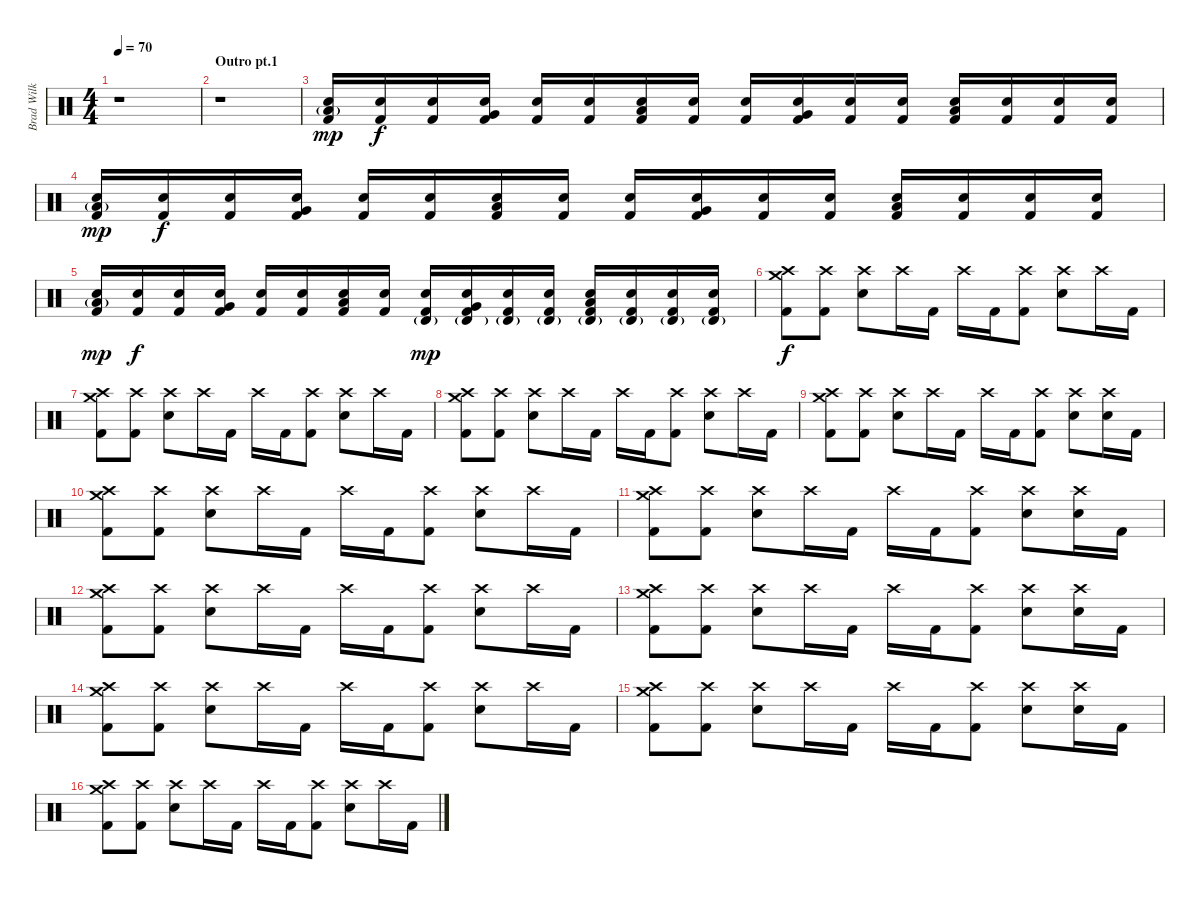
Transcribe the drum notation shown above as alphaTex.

\track ("Brad Wilk (percussion)" "Brad Wilk ") {instrument percussion}
\staff {score}
\articulation defaults
\ts (4 4)
\tempo 70
\clef neutral
\ks c
r.1{dy mp} |
\section ("" "Outro pt.1")
r.1{volume 5} |
("Low Tom (hit)"{g} "Snare (hit) 2" "Kick (hit) 2").16{volume 13} ("Snare (hit) 2" "Kick (hit) 2").16{dy f} ("Snare (hit) 2" "Kick (hit) 2").16 ("Very Low Tom (hit)" "Snare (hit) 2" "Kick (hit) 2").16 ("Snare (hit) 2" "Kick (hit) 2").16 ("Snare (hit) 2" "Kick (hit) 2").16 ("Low Tom (hit)" "Snare (hit) 2" "Kick (hit) 2").16 ("Snare (hit) 2" "Kick (hit) 2").16 ("Snare (hit) 2" "Kick (hit) 2").16 ("Very Low Tom (hit)" "Snare (hit) 2" "Kick (hit) 2").16 ("Snare (hit) 2" "Kick (hit) 2").16 ("Snare (hit) 2" "Kick (hit) 2").16 ("Low Tom (hit)" "Snare (hit) 2" "Kick (hit) 2").16 ("Snare (hit) 2" "Kick (hit) 2").16 ("Snare (hit) 2" "Kick (hit) 2").16 ("Snare (hit) 2" "Kick (hit) 2").16 |
("Low Tom (hit)"{g} "Snare (hit) 2" "Kick (hit) 2").16{dy mp} ("Snare (hit) 2" "Kick (hit) 2").16{dy f} ("Snare (hit) 2" "Kick (hit) 2").16 ("Very Low Tom (hit)" "Snare (hit) 2" "Kick (hit) 2").16 ("Snare (hit) 2" "Kick (hit) 2").16 ("Snare (hit) 2" "Kick (hit) 2").16 ("Low Tom (hit)" "Snare (hit) 2" "Kick (hit) 2").16 ("Snare (hit) 2" "Kick (hit) 2").16 ("Snare (hit) 2" "Kick (hit) 2").16 ("Very Low Tom (hit)" "Snare (hit) 2" "Kick (hit) 2").16 ("Snare (hit) 2" "Kick (hit) 2").16 ("Snare (hit) 2" "Kick (hit) 2").16 ("Low Tom (hit)" "Snare (hit) 2" "Kick (hit) 2").16 ("Snare (hit) 2" "Kick (hit) 2").16 ("Snare (hit) 2" "Kick (hit) 2").16 ("Snare (hit) 2" "Kick (hit) 2").16 |
("Low Tom (hit)"{g} "Snare (hit) 2" "Kick (hit) 2").16{dy mp} ("Snare (hit) 2" "Kick (hit) 2").16{dy f} ("Snare (hit) 2" "Kick (hit) 2").16 ("Very Low Tom (hit)" "Snare (hit) 2" "Kick (hit) 2").16 ("Snare (hit) 2" "Kick (hit) 2").16 ("Snare (hit) 2" "Kick (hit) 2").16 ("Low Tom (hit)" "Snare (hit) 2" "Kick (hit) 2").16 ("Snare (hit) 2" "Kick (hit) 2").16 ("Timbale high (hit)"{g} "Snare (hit) 2" "Kick (hit) 2").16{dy mp} ("Timbale high (hit)"{g} "Very Low Tom (hit)" "Snare (hit) 2" "Kick (hit) 2").16 ("Timbale high (hit)"{g} "Snare (hit) 2" "Kick (hit) 2").16 ("Timbale high (hit)"{g} "Snare (hit) 2" "Kick (hit) 2").16 ("Timbale high (hit)"{g} "Low Tom (hit)" "Snare (hit) 2" "Kick (hit) 2").16 ("Timbale high (hit)"{g} "Snare (hit) 2" "Kick (hit) 2").16 ("Timbale high (hit)"{g} "Snare (hit) 2" "Kick (hit) 2").16 ("Timbale high (hit)"{g} "Snare (hit) 2" "Kick (hit) 2").16 |
("Crash high (hit)" "Crash medium (hit)" "Kick (hit) 2").8{dy f volume 13} ("Crash high (hit)" "Kick (hit) 2").8 ("Crash high (hit)" "Electric Snare (hit)").8 "Crash high (hit)".16 "Kick (hit) 2".16 "Crash high (hit)".16 "Kick (hit) 2".16 ("Crash high (hit)" "Kick (hit) 2").8 ("Crash high (hit)" "Electric Snare (hit)").8 "Crash high (hit)".16 "Kick (hit) 2".16 |
("Crash high (hit)" "Crash medium (hit)" "Kick (hit) 2").8 ("Crash high (hit)" "Kick (hit) 2").8 ("Crash high (hit)" "Electric Snare (hit)").8 "Crash high (hit)".16 "Kick (hit) 2".16 "Crash high (hit)".16 "Kick (hit) 2".16 ("Crash high (hit)" "Kick (hit) 2").8 ("Crash high (hit)" "Electric Snare (hit)").8 "Crash high (hit)".16 "Kick (hit) 2".16 |
("Crash high (hit)" "Crash medium (hit)" "Kick (hit) 2").8 ("Crash high (hit)" "Kick (hit) 2").8 ("Crash high (hit)" "Electric Snare (hit)").8 "Crash high (hit)".16 "Kick (hit) 2".16 "Crash high (hit)".16 "Kick (hit) 2".16 ("Crash high (hit)" "Kick (hit) 2").8 ("Crash high (hit)" "Electric Snare (hit)").8 "Crash high (hit)".16 "Kick (hit) 2".16 |
("Crash high (hit)" "Crash medium (hit)" "Kick (hit) 2").8 ("Crash high (hit)" "Kick (hit) 2").8 ("Crash high (hit)" "Electric Snare (hit)").8 "Crash high (hit)".16 "Kick (hit) 2".16 "Crash high (hit)".16 "Kick (hit) 2".16 ("Crash high (hit)" "Kick (hit) 2").8 ("Crash high (hit)" "Electric Snare (hit)").8 ("Crash high (hit)" "Electric Snare (hit)").16 "Kick (hit) 2".16 |
("Crash high (hit)" "Crash medium (hit)" "Kick (hit) 2").8 ("Crash high (hit)" "Kick (hit) 2").8 ("Crash high (hit)" "Electric Snare (hit)").8 "Crash high (hit)".16 "Kick (hit) 2".16 "Crash high (hit)".16 "Kick (hit) 2".16 ("Crash high (hit)" "Kick (hit) 2").8 ("Crash high (hit)" "Electric Snare (hit)").8 "Crash high (hit)".16 "Kick (hit) 2".16 |
("Crash high (hit)" "Crash medium (hit)" "Kick (hit) 2").8 ("Crash high (hit)" "Kick (hit) 2").8 ("Crash high (hit)" "Electric Snare (hit)").8 "Crash high (hit)".16 "Kick (hit) 2".16 "Crash high (hit)".16 "Kick (hit) 2".16 ("Crash high (hit)" "Kick (hit) 2").8 ("Crash high (hit)" "Electric Snare (hit)").8 ("Crash high (hit)" "Electric Snare (hit)").16 "Kick (hit) 2".16 |
("Crash high (hit)" "Crash medium (hit)" "Kick (hit) 2").8 ("Crash high (hit)" "Kick (hit) 2").8 ("Crash high (hit)" "Electric Snare (hit)").8 "Crash high (hit)".16 "Kick (hit) 2".16 "Crash high (hit)".16 "Kick (hit) 2".16 ("Crash high (hit)" "Kick (hit) 2").8 ("Crash high (hit)" "Electric Snare (hit)").8 "Crash high (hit)".16 "Kick (hit) 2".16 |
("Crash high (hit)" "Crash medium (hit)" "Kick (hit) 2").8 ("Crash high (hit)" "Kick (hit) 2").8 ("Crash high (hit)" "Electric Snare (hit)").8 "Crash high (hit)".16 "Kick (hit) 2".16 "Crash high (hit)".16 "Kick (hit) 2".16 ("Crash high (hit)" "Kick (hit) 2").8 ("Crash high (hit)" "Electric Snare (hit)").8 ("Crash high (hit)" "Electric Snare (hit)").16 "Kick (hit) 2".16 |
("Crash high (hit)" "Crash medium (hit)" "Kick (hit) 2").8 ("Crash high (hit)" "Kick (hit) 2").8 ("Crash high (hit)" "Electric Snare (hit)").8 "Crash high (hit)".16 "Kick (hit) 2".16 "Crash high (hit)".16 "Kick (hit) 2".16 ("Crash high (hit)" "Kick (hit) 2").8 ("Crash high (hit)" "Electric Snare (hit)").8 "Crash high (hit)".16 "Kick (hit) 2".16 |
("Crash high (hit)" "Crash medium (hit)" "Kick (hit) 2").8 ("Crash high (hit)" "Kick (hit) 2").8 ("Crash high (hit)" "Electric Snare (hit)").8 "Crash high (hit)".16 "Kick (hit) 2".16 "Crash high (hit)".16 "Kick (hit) 2".16 ("Crash high (hit)" "Kick (hit) 2").8 ("Crash high (hit)" "Electric Snare (hit)").8 ("Crash high (hit)" "Electric Snare (hit)").16 "Kick (hit) 2".16 |
("Crash high (hit)" "Crash medium (hit)" "Kick (hit) 2").8 ("Crash high (hit)" "Kick (hit) 2").8 ("Crash high (hit)" "Electric Snare (hit)").8 "Crash high (hit)".16 "Kick (hit) 2".16 "Crash high (hit)".16 "Kick (hit) 2".16 ("Crash high (hit)" "Kick (hit) 2").8 ("Crash high (hit)" "Electric Snare (hit)").8 "Crash high (hit)".16 "Kick (hit) 2".16
